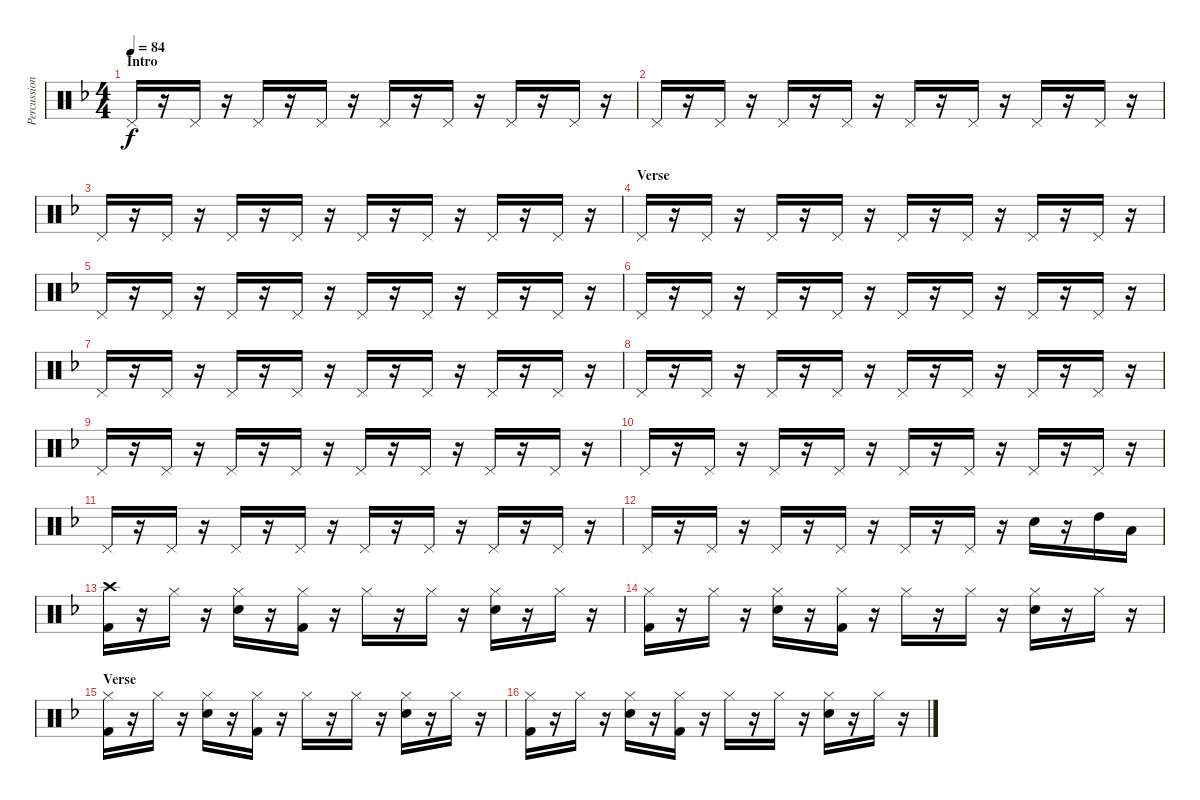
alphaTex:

\track ("Percussion" "Percussion") {instrument percussion}
\staff {score}
\articulation defaults
\ts (4 4)
\section ("" "Intro")
\tempo 84
\clef neutral
\ks f "Pedal Hi-Hat (hit)".16{dy f}
r.16 "Pedal Hi-Hat (hit)".16 r.16 "Pedal Hi-Hat (hit)".16 r.16 "Pedal Hi-Hat (hit)".16 r.16 "Pedal Hi-Hat (hit)".16 r.16 "Pedal Hi-Hat (hit)".16 r.16 "Pedal Hi-Hat (hit)".16 r.16 "Pedal Hi-Hat (hit)".16 r.16 |
"Pedal Hi-Hat (hit)".16 r.16 "Pedal Hi-Hat (hit)".16 r.16 "Pedal Hi-Hat (hit)".16 r.16 "Pedal Hi-Hat (hit)".16 r.16 "Pedal Hi-Hat (hit)".16 r.16 "Pedal Hi-Hat (hit)".16 r.16 "Pedal Hi-Hat (hit)".16 r.16 "Pedal Hi-Hat (hit)".16 r.16 |
"Pedal Hi-Hat (hit)".16 r.16 "Pedal Hi-Hat (hit)".16 r.16 "Pedal Hi-Hat (hit)".16 r.16 "Pedal Hi-Hat (hit)".16 r.16 "Pedal Hi-Hat (hit)".16 r.16 "Pedal Hi-Hat (hit)".16 r.16 "Pedal Hi-Hat (hit)".16 r.16 "Pedal Hi-Hat (hit)".16 r.16 |
\section ("" "Verse")
"Pedal Hi-Hat (hit)".16 r.16 "Pedal Hi-Hat (hit)".16 r.16 "Pedal Hi-Hat (hit)".16 r.16 "Pedal Hi-Hat (hit)".16 r.16 "Pedal Hi-Hat (hit)".16 r.16 "Pedal Hi-Hat (hit)".16 r.16 "Pedal Hi-Hat (hit)".16 r.16 "Pedal Hi-Hat (hit)".16 r.16 |
"Pedal Hi-Hat (hit)".16 r.16 "Pedal Hi-Hat (hit)".16 r.16 "Pedal Hi-Hat (hit)".16 r.16 "Pedal Hi-Hat (hit)".16 r.16 "Pedal Hi-Hat (hit)".16 r.16 "Pedal Hi-Hat (hit)".16 r.16 "Pedal Hi-Hat (hit)".16 r.16 "Pedal Hi-Hat (hit)".16 r.16 |
"Pedal Hi-Hat (hit)".16 r.16 "Pedal Hi-Hat (hit)".16 r.16 "Pedal Hi-Hat (hit)".16 r.16 "Pedal Hi-Hat (hit)".16 r.16 "Pedal Hi-Hat (hit)".16 r.16 "Pedal Hi-Hat (hit)".16 r.16 "Pedal Hi-Hat (hit)".16 r.16 "Pedal Hi-Hat (hit)".16 r.16 |
"Pedal Hi-Hat (hit)".16 r.16 "Pedal Hi-Hat (hit)".16 r.16 "Pedal Hi-Hat (hit)".16 r.16 "Pedal Hi-Hat (hit)".16 r.16 "Pedal Hi-Hat (hit)".16 r.16 "Pedal Hi-Hat (hit)".16 r.16 "Pedal Hi-Hat (hit)".16 r.16 "Pedal Hi-Hat (hit)".16 r.16 |
"Pedal Hi-Hat (hit)".16 r.16 "Pedal Hi-Hat (hit)".16 r.16 "Pedal Hi-Hat (hit)".16 r.16 "Pedal Hi-Hat (hit)".16 r.16 "Pedal Hi-Hat (hit)".16 r.16 "Pedal Hi-Hat (hit)".16 r.16 "Pedal Hi-Hat (hit)".16 r.16 "Pedal Hi-Hat (hit)".16 r.16 |
"Pedal Hi-Hat (hit)".16 r.16 "Pedal Hi-Hat (hit)".16 r.16 "Pedal Hi-Hat (hit)".16 r.16 "Pedal Hi-Hat (hit)".16 r.16 "Pedal Hi-Hat (hit)".16 r.16 "Pedal Hi-Hat (hit)".16 r.16 "Pedal Hi-Hat (hit)".16 r.16 "Pedal Hi-Hat (hit)".16 r.16 |
"Pedal Hi-Hat (hit)".16 r.16 "Pedal Hi-Hat (hit)".16 r.16 "Pedal Hi-Hat (hit)".16 r.16 "Pedal Hi-Hat (hit)".16 r.16 "Pedal Hi-Hat (hit)".16 r.16 "Pedal Hi-Hat (hit)".16 r.16 "Pedal Hi-Hat (hit)".16 r.16 "Pedal Hi-Hat (hit)".16 r.16 |
"Pedal Hi-Hat (hit)".16 r.16 "Pedal Hi-Hat (hit)".16 r.16 "Pedal Hi-Hat (hit)".16 r.16 "Pedal Hi-Hat (hit)".16 r.16 "Pedal Hi-Hat (hit)".16 r.16 "Pedal Hi-Hat (hit)".16 r.16 "Pedal Hi-Hat (hit)".16 r.16 "Pedal Hi-Hat (hit)".16 r.16 |
"Pedal Hi-Hat (hit)".16 r.16 "Pedal Hi-Hat (hit)".16 r.16 "Pedal Hi-Hat (hit)".16 r.16 "Pedal Hi-Hat (hit)".16 r.16 "Pedal Hi-Hat (hit)".16 r.16 "Pedal Hi-Hat (hit)".16{volume 3} r.16 "Snare (hit) 2".16 r.16 "High Tom (hit)".16 "Low Tom (hit)".16 |
("Crash high (hit)" "Kick (hit) 2").16 r.16 "Hi-Hat (closed)".16 r.16 ("Hi-Hat (closed)" "Snare (hit) 2").16 r.16 ("Hi-Hat (closed)" "Kick (hit) 2").16 r.16 "Hi-Hat (closed)".16 r.16 "Hi-Hat (closed)".16 r.16 ("Hi-Hat (closed)" "Snare (hit) 2").16 r.16 "Hi-Hat (closed)".16 r.16 |
("Hi-Hat (closed)" "Kick (hit) 2").16 r.16 "Hi-Hat (closed)".16 r.16 ("Hi-Hat (closed)" "Snare (hit) 2").16 r.16 ("Hi-Hat (closed)" "Kick (hit) 2").16 r.16 "Hi-Hat (closed)".16 r.16 "Hi-Hat (closed)".16 r.16 ("Hi-Hat (closed)" "Snare (hit) 2").16 r.16 "Hi-Hat (closed)".16 r.16 |
\section ("" "Verse")
("Hi-Hat (closed)" "Kick (hit) 2").16 r.16 "Hi-Hat (closed)".16 r.16 ("Hi-Hat (closed)" "Snare (hit) 2").16 r.16 ("Hi-Hat (closed)" "Kick (hit) 2").16 r.16 "Hi-Hat (closed)".16 r.16 "Hi-Hat (closed)".16 r.16 ("Hi-Hat (closed)" "Snare (hit) 2").16 r.16 "Hi-Hat (closed)".16 r.16 |
("Hi-Hat (closed)" "Kick (hit) 2").16 r.16 "Hi-Hat (closed)".16 r.16 ("Hi-Hat (closed)" "Snare (hit) 2").16 r.16 ("Hi-Hat (closed)" "Kick (hit) 2").16 r.16 "Hi-Hat (closed)".16 r.16 "Hi-Hat (closed)".16 r.16 ("Hi-Hat (closed)" "Snare (hit) 2").16 r.16 "Hi-Hat (closed)".16 r.16
